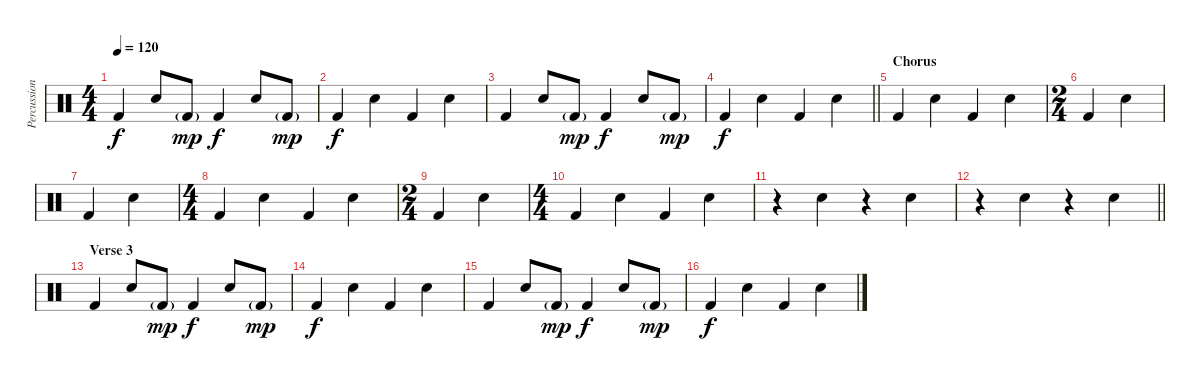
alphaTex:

\track ("Percussion" "Percussion") {instrument percussion}
\staff {score}
\articulation defaults
\ts (4 4)
\tempo 120
\clef neutral
\ks c "Kick (hit) 2".4{dy f} "Snare (hit) 2".8 "Kick (hit) 2"{g}.8{dy mp} "Kick (hit) 2".4{dy f} "Snare (hit) 2".8 "Kick (hit) 2"{g}.8{dy mp}
|
"Kick (hit) 2".4{dy f} "Snare (hit) 2".4 "Kick (hit) 2".4 "Snare (hit) 2".4 |
"Kick (hit) 2".4 "Snare (hit) 2".8 "Kick (hit) 2"{g}.8{dy mp} "Kick (hit) 2".4{dy f} "Snare (hit) 2".8 "Kick (hit) 2"{g}.8{dy mp} |
\barLineRight lightlight "Kick (hit) 2".4{dy f} "Snare (hit) 2".4 "Kick (hit) 2".4 "Snare (hit) 2".4
|
\section ("" "Chorus")
"Kick (hit) 2".4 "Snare (hit) 2".4 "Kick (hit) 2".4 "Snare (hit) 2".4 |
\ts (2 4)
"Kick (hit) 2".4 "Snare (hit) 2".4 |
"Kick (hit) 2".4 "Snare (hit) 2".4 |
\ts (4 4)
"Kick (hit) 2".4 "Snare (hit) 2".4 "Kick (hit) 2".4 "Snare (hit) 2".4 |
\ts (2 4)
"Kick (hit) 2".4 "Snare (hit) 2".4 |
\ts (4 4)
"Kick (hit) 2".4 "Snare (hit) 2".4 "Kick (hit) 2".4 "Snare (hit) 2".4 |
r.4 "Snare (hit) 2".4 r.4 "Snare (hit) 2".4 |
\barLineRight lightlight
r.4 "Snare (hit) 2".4 r.4 "Snare (hit) 2".4 |
\section ("" "Verse 3")
"Kick (hit) 2".4 "Snare (hit) 2".8 "Kick (hit) 2"{g}.8{dy mp} "Kick (hit) 2".4{dy f} "Snare (hit) 2".8 "Kick (hit) 2"{g}.8{dy mp} |
"Kick (hit) 2".4{dy f} "Snare (hit) 2".4 "Kick (hit) 2".4 "Snare (hit) 2".4 |
"Kick (hit) 2".4 "Snare (hit) 2".8 "Kick (hit) 2"{g}.8{dy mp} "Kick (hit) 2".4{dy f} "Snare (hit) 2".8 "Kick (hit) 2"{g}.8{dy mp} |
"Kick (hit) 2".4{dy f} "Snare (hit) 2".4 "Kick (hit) 2".4 "Snare (hit) 2".4
